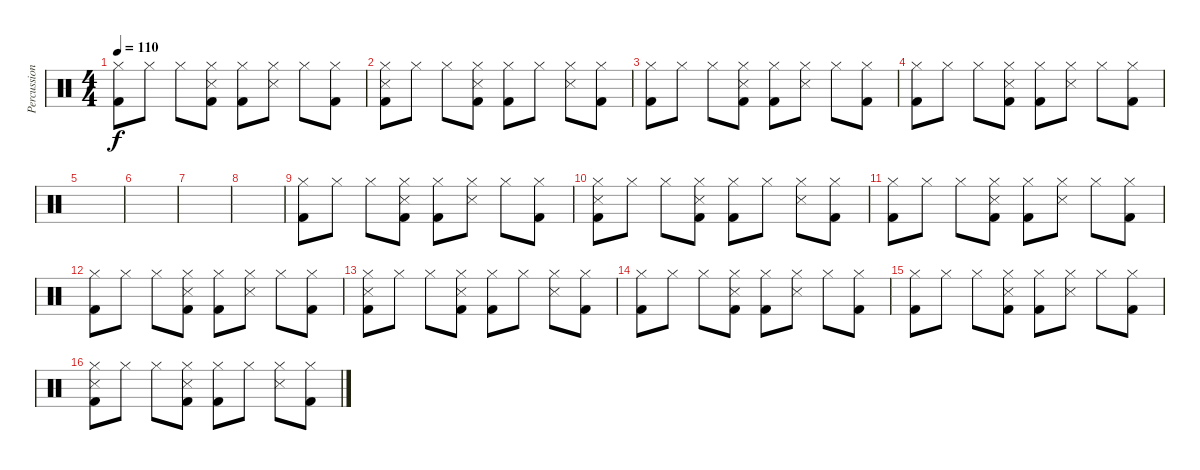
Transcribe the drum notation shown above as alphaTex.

\track ("Percussions" "Percussion") {instrument percussion}
\staff {score}
\articulation defaults
\ts (4 4)
\tempo 110
\clef neutral
\ks c
("Hi-Hat (closed)" "Kick (hit) 2").8{dy f} "Hi-Hat (closed)".8 "Hi-Hat (closed)".8 ("Hi-Hat (closed)" "Snare (side stick) 3" "Kick (hit) 2").8 ("Hi-Hat (closed)" "Kick (hit) 2").8 ("Hi-Hat (closed)" "Snare (side stick) 3").8 "Hi-Hat (closed)".8 ("Hi-Hat (closed)" "Kick (hit) 2").8 |
("Hi-Hat (closed)" "Snare (side stick) 3" "Kick (hit) 2").8 "Hi-Hat (closed)".8 "Hi-Hat (closed)".8 ("Hi-Hat (closed)" "Snare (side stick) 3" "Kick (hit) 2").8 ("Hi-Hat (closed)" "Kick (hit) 2").8 "Hi-Hat (closed)".8 ("Hi-Hat (closed)" "Snare (side stick) 3").8 ("Hi-Hat (closed)" "Kick (hit) 2").8 |
("Hi-Hat (closed)" "Kick (hit) 2").8 "Hi-Hat (closed)".8 "Hi-Hat (closed)".8 ("Hi-Hat (closed)" "Snare (side stick) 3" "Kick (hit) 2").8 ("Hi-Hat (closed)" "Kick (hit) 2").8 ("Hi-Hat (closed)" "Snare (side stick) 3").8 "Hi-Hat (closed)".8 ("Hi-Hat (closed)" "Kick (hit) 2").8 |
("Hi-Hat (closed)" "Kick (hit) 2").8 "Hi-Hat (closed)".8 "Hi-Hat (closed)".8 ("Hi-Hat (closed)" "Snare (side stick) 3" "Kick (hit) 2").8 ("Hi-Hat (closed)" "Kick (hit) 2").8 ("Hi-Hat (closed)" "Snare (side stick) 3").8 "Hi-Hat (closed)".8 ("Hi-Hat (closed)" "Kick (hit) 2").8 |
|
|
|
|
("Hi-Hat (closed)" "Kick (hit) 2").8 "Hi-Hat (closed)".8 "Hi-Hat (closed)".8 ("Hi-Hat (closed)" "Snare (side stick) 3" "Kick (hit) 2").8 ("Hi-Hat (closed)" "Kick (hit) 2").8 ("Hi-Hat (closed)" "Snare (side stick) 3").8 "Hi-Hat (closed)".8 ("Hi-Hat (closed)" "Kick (hit) 2").8 |
("Hi-Hat (closed)" "Snare (side stick) 3" "Kick (hit) 2").8 "Hi-Hat (closed)".8 "Hi-Hat (closed)".8 ("Hi-Hat (closed)" "Snare (side stick) 3" "Kick (hit) 2").8 ("Hi-Hat (closed)" "Kick (hit) 2").8 "Hi-Hat (closed)".8 ("Hi-Hat (closed)" "Snare (side stick) 3").8 ("Hi-Hat (closed)" "Kick (hit) 2").8 |
("Hi-Hat (closed)" "Kick (hit) 2").8 "Hi-Hat (closed)".8 "Hi-Hat (closed)".8 ("Hi-Hat (closed)" "Snare (side stick) 3" "Kick (hit) 2").8 ("Hi-Hat (closed)" "Kick (hit) 2").8 ("Hi-Hat (closed)" "Snare (side stick) 3").8 "Hi-Hat (closed)".8 ("Hi-Hat (closed)" "Kick (hit) 2").8 |
("Hi-Hat (closed)" "Kick (hit) 2").8 "Hi-Hat (closed)".8 "Hi-Hat (closed)".8 ("Hi-Hat (closed)" "Snare (side stick) 3" "Kick (hit) 2").8 ("Hi-Hat (closed)" "Kick (hit) 2").8 ("Hi-Hat (closed)" "Snare (side stick) 3").8 "Hi-Hat (closed)".8 ("Hi-Hat (closed)" "Kick (hit) 2").8 |
("Hi-Hat (closed)" "Snare (side stick) 3" "Kick (hit) 2").8 "Hi-Hat (closed)".8 "Hi-Hat (closed)".8 ("Hi-Hat (closed)" "Snare (side stick) 3" "Kick (hit) 2").8 ("Hi-Hat (closed)" "Kick (hit) 2").8 "Hi-Hat (closed)".8 ("Hi-Hat (closed)" "Snare (side stick) 3").8 ("Hi-Hat (closed)" "Kick (hit) 2").8 |
("Hi-Hat (closed)" "Kick (hit) 2").8 "Hi-Hat (closed)".8 "Hi-Hat (closed)".8 ("Hi-Hat (closed)" "Snare (side stick) 3" "Kick (hit) 2").8 ("Hi-Hat (closed)" "Kick (hit) 2").8 ("Hi-Hat (closed)" "Snare (side stick) 3").8 "Hi-Hat (closed)".8 ("Hi-Hat (closed)" "Kick (hit) 2").8 |
("Hi-Hat (closed)" "Kick (hit) 2").8 "Hi-Hat (closed)".8 "Hi-Hat (closed)".8 ("Hi-Hat (closed)" "Snare (side stick) 3" "Kick (hit) 2").8 ("Hi-Hat (closed)" "Kick (hit) 2").8 ("Hi-Hat (closed)" "Snare (side stick) 3").8 "Hi-Hat (closed)".8 ("Hi-Hat (closed)" "Kick (hit) 2").8 |
("Hi-Hat (closed)" "Snare (side stick) 3" "Kick (hit) 2").8 "Hi-Hat (closed)".8 "Hi-Hat (closed)".8 ("Hi-Hat (closed)" "Snare (side stick) 3" "Kick (hit) 2").8 ("Hi-Hat (closed)" "Kick (hit) 2").8 "Hi-Hat (closed)".8 ("Hi-Hat (closed)" "Snare (side stick) 3").8 ("Hi-Hat (closed)" "Kick (hit) 2").8
